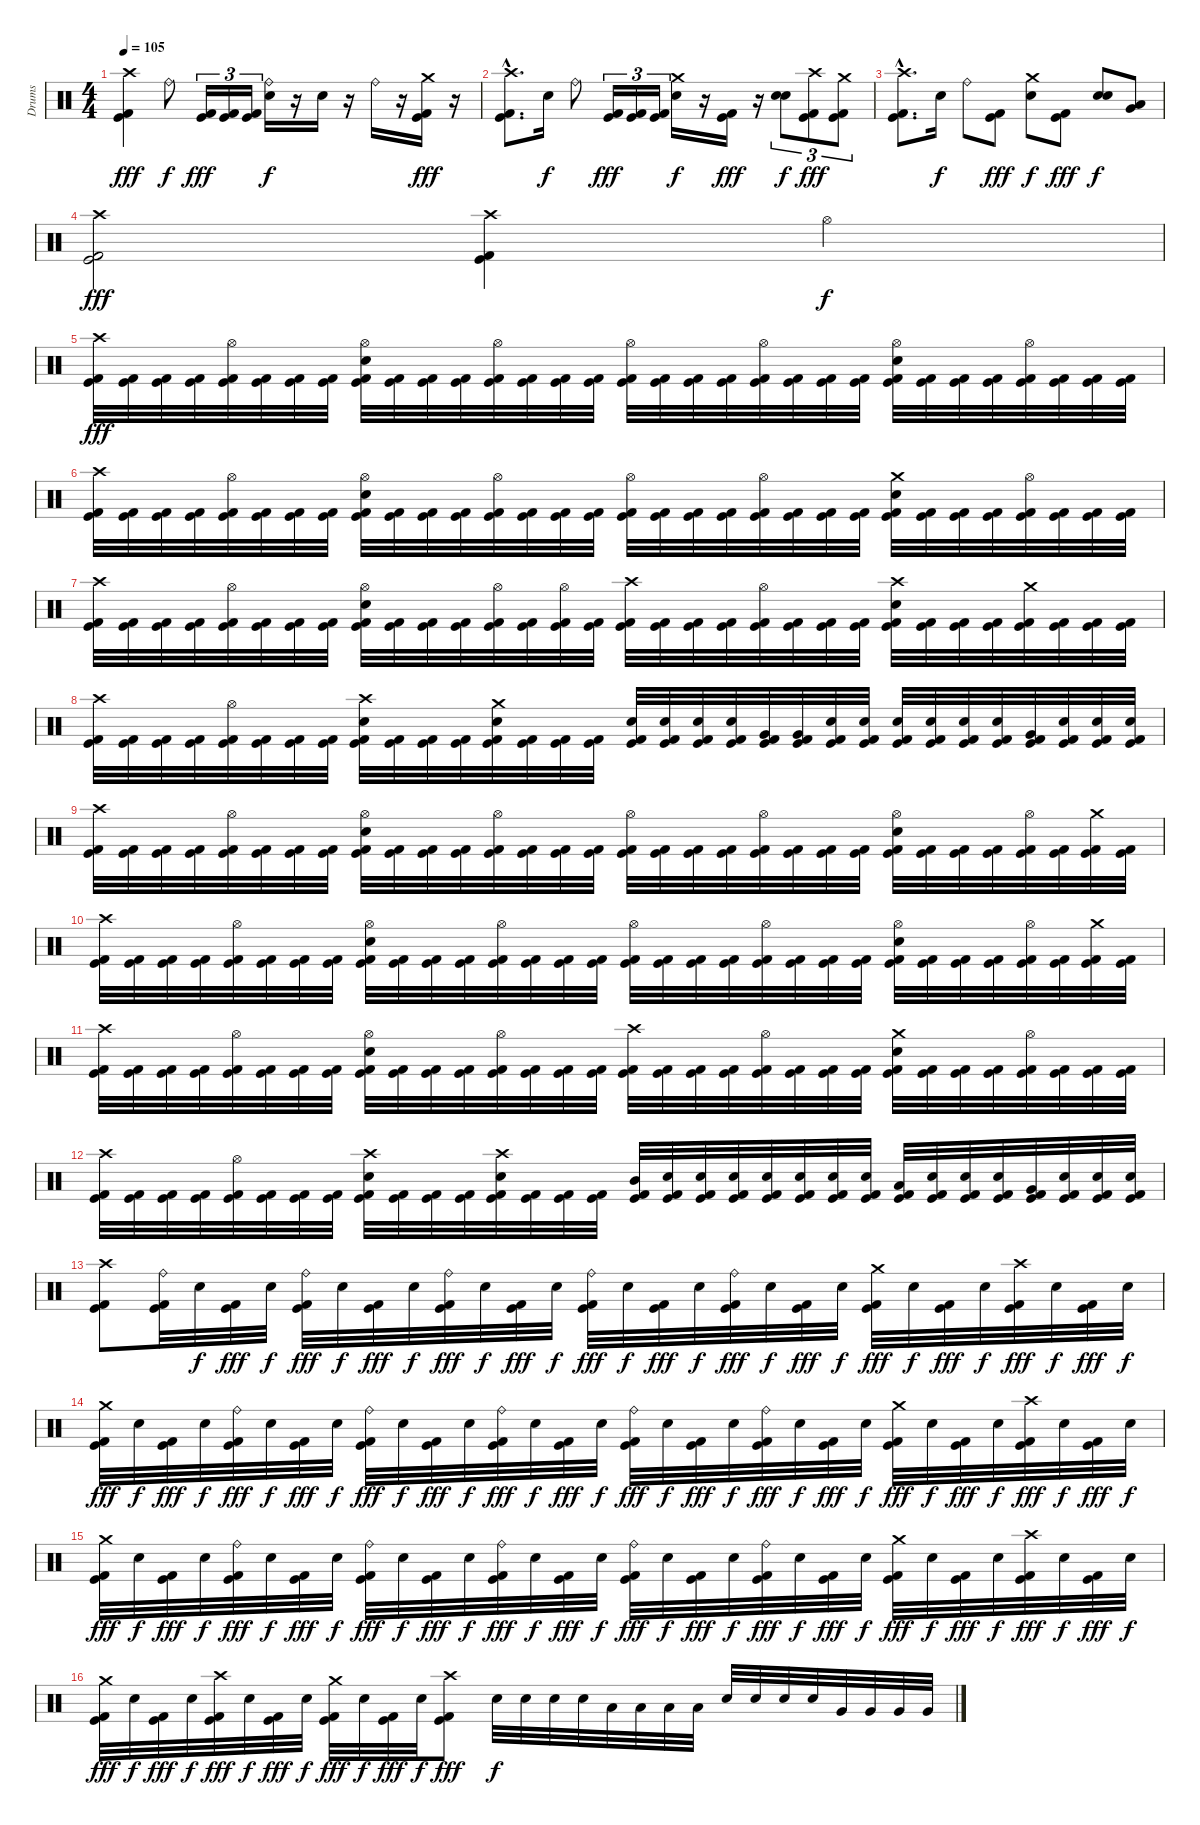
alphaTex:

\track ("Drums" "Drums") {instrument percussion}
\staff {score}
\articulation defaults
\ts (4 4)
\tempo 105
\clef neutral
\ks c
("Crash high (hit)" "Kick (hit)" "Kick (hit) 2").4{dy fff} "Ride (bell)".8{dy f} ("Kick (hit)" "Kick (hit) 2").16{tu (3 2) dy fff} ("Kick (hit)" "Kick (hit) 2").16{tu (3 2)} ("Kick (hit)" "Kick (hit) 2").16{tu (3 2)} ("Ride (bell)" "Electric Snare (hit)").16{dy f} r.16 "Electric Snare (hit)".16 r.16 "Ride (bell)".16 r.16 ("Crash medium (hit)" "Kick (hit)" "Kick (hit) 2").16{dy fff} r.16 |
("Crash high (hit)"{hac} "Kick (hit)"{hac} "Kick (hit) 2"{hac}).8{d} "Electric Snare (hit)".16{dy f} "Ride (bell)".8 ("Kick (hit)" "Kick (hit) 2").16{tu (3 2) dy fff} ("Kick (hit)" "Kick (hit) 2").16{tu (3 2)} ("Kick (hit)" "Kick (hit) 2").16{tu (3 2)} ("Crash medium (hit)" "Electric Snare (hit)").16{dy f} r.16 ("Kick (hit)" "Kick (hit) 2").16{dy fff} r.16 ("Electric Snare (hit)" "Electric Snare (hit)").8{tu (3 2) bu 120 dy f} ("Crash high (hit)" "Kick (hit)" "Kick (hit) 2").8{tu (3 2) dy fff} ("Crash medium (hit)" "Kick (hit)" "Kick (hit) 2").8{tu (3 2)} |
("Crash high (hit)"{hac} "Kick (hit)"{hac} "Kick (hit) 2"{hac}).8{d} "Electric Snare (hit)".16{dy f} "Ride (bell)".8 ("Kick (hit)" "Kick (hit) 2").8{dy fff} ("Crash medium (hit)" "Electric Snare (hit)").8{dy f} ("Kick (hit)" "Kick (hit) 2").8{dy fff} ("Electric Snare (hit)" "Electric Snare (hit)").8{bd 120 dy f} ("Very Low Tom (hit)" "Low Floor Tom (hit)").8{bd 480} |
("Crash high (hit)" "Kick (hit)" "Kick (hit) 2").2{dy fff} ("Crash high (hit)" "Kick (hit)" "Kick (hit) 2").4 "Hi-Hat (open)".4{dy f} |
("Crash high (hit)" "Kick (hit)" "Kick (hit) 2").32{dy fff} ("Kick (hit)" "Kick (hit) 2").32 ("Kick (hit)" "Kick (hit) 2").32 ("Kick (hit)" "Kick (hit) 2").32 ("Hi-Hat (open)" "Kick (hit)" "Kick (hit) 2").32 ("Kick (hit)" "Kick (hit) 2").32 ("Kick (hit)" "Kick (hit) 2").32 ("Kick (hit)" "Kick (hit) 2").32 ("Hi-Hat (open)" "Electric Snare (hit)" "Kick (hit)" "Kick (hit) 2").32 ("Kick (hit)" "Kick (hit) 2").32 ("Kick (hit)" "Kick (hit) 2").32 ("Kick (hit)" "Kick (hit) 2").32 ("Hi-Hat (open)" "Kick (hit)" "Kick (hit) 2").32 ("Kick (hit)" "Kick (hit) 2").32 ("Kick (hit)" "Kick (hit) 2").32 ("Kick (hit)" "Kick (hit) 2").32 ("Hi-Hat (open)" "Kick (hit)" "Kick (hit) 2").32 ("Kick (hit)" "Kick (hit) 2").32 ("Kick (hit)" "Kick (hit) 2").32 ("Kick (hit)" "Kick (hit) 2").32 ("Hi-Hat (open)" "Kick (hit)" "Kick (hit) 2").32 ("Kick (hit)" "Kick (hit) 2").32 ("Kick (hit)" "Kick (hit) 2").32 ("Kick (hit)" "Kick (hit) 2").32 ("Hi-Hat (open)" "Electric Snare (hit)" "Kick (hit)" "Kick (hit) 2").32 ("Kick (hit)" "Kick (hit) 2").32 ("Kick (hit)" "Kick (hit) 2").32 ("Kick (hit)" "Kick (hit) 2").32 ("Hi-Hat (open)" "Kick (hit)" "Kick (hit) 2").32 ("Kick (hit)" "Kick (hit) 2").32 ("Kick (hit)" "Kick (hit) 2").32 ("Kick (hit)" "Kick (hit) 2").32 |
("Crash high (hit)" "Kick (hit)" "Kick (hit) 2").32 ("Kick (hit)" "Kick (hit) 2").32 ("Kick (hit)" "Kick (hit) 2").32 ("Kick (hit)" "Kick (hit) 2").32 ("Hi-Hat (open)" "Kick (hit)" "Kick (hit) 2").32 ("Kick (hit)" "Kick (hit) 2").32 ("Kick (hit)" "Kick (hit) 2").32 ("Kick (hit)" "Kick (hit) 2").32 ("Hi-Hat (open)" "Electric Snare (hit)" "Kick (hit)" "Kick (hit) 2").32 ("Kick (hit)" "Kick (hit) 2").32 ("Kick (hit)" "Kick (hit) 2").32 ("Kick (hit)" "Kick (hit) 2").32 ("Hi-Hat (open)" "Kick (hit)" "Kick (hit) 2").32 ("Kick (hit)" "Kick (hit) 2").32 ("Kick (hit)" "Kick (hit) 2").32 ("Kick (hit)" "Kick (hit) 2").32 ("Hi-Hat (open)" "Kick (hit)" "Kick (hit) 2").32 ("Kick (hit)" "Kick (hit) 2").32 ("Kick (hit)" "Kick (hit) 2").32 ("Kick (hit)" "Kick (hit) 2").32 ("Hi-Hat (open)" "Kick (hit)" "Kick (hit) 2").32 ("Kick (hit)" "Kick (hit) 2").32 ("Kick (hit)" "Kick (hit) 2").32 ("Kick (hit)" "Kick (hit) 2").32 ("Crash medium (hit)" "Electric Snare (hit)" "Kick (hit)" "Kick (hit) 2").32 ("Kick (hit)" "Kick (hit) 2").32 ("Kick (hit)" "Kick (hit) 2").32 ("Kick (hit)" "Kick (hit) 2").32 ("Hi-Hat (open)" "Kick (hit)" "Kick (hit) 2").32 ("Kick (hit)" "Kick (hit) 2").32 ("Kick (hit)" "Kick (hit) 2").32 ("Kick (hit)" "Kick (hit) 2").32 |
("Crash high (hit)" "Kick (hit)" "Kick (hit) 2").32 ("Kick (hit)" "Kick (hit) 2").32 ("Kick (hit)" "Kick (hit) 2").32 ("Kick (hit)" "Kick (hit) 2").32 ("Hi-Hat (open)" "Kick (hit)" "Kick (hit) 2").32 ("Kick (hit)" "Kick (hit) 2").32 ("Kick (hit)" "Kick (hit) 2").32 ("Kick (hit)" "Kick (hit) 2").32 ("Hi-Hat (open)" "Electric Snare (hit)" "Kick (hit)" "Kick (hit) 2").32 ("Kick (hit)" "Kick (hit) 2").32 ("Kick (hit)" "Kick (hit) 2").32 ("Kick (hit)" "Kick (hit) 2").32 ("Hi-Hat (open)" "Kick (hit)" "Kick (hit) 2").32 ("Kick (hit)" "Kick (hit) 2").32 ("Hi-Hat (open)" "Kick (hit)" "Kick (hit) 2").32 ("Kick (hit)" "Kick (hit) 2").32 ("Crash high (hit)" "Kick (hit)" "Kick (hit) 2").32 ("Kick (hit)" "Kick (hit) 2").32 ("Kick (hit)" "Kick (hit) 2").32 ("Kick (hit)" "Kick (hit) 2").32 ("Hi-Hat (open)" "Kick (hit)" "Kick (hit) 2").32 ("Kick (hit)" "Kick (hit) 2").32 ("Kick (hit)" "Kick (hit) 2").32 ("Kick (hit)" "Kick (hit) 2").32 ("Crash high (hit)" "Electric Snare (hit)" "Kick (hit)" "Kick (hit) 2").32 ("Kick (hit)" "Kick (hit) 2").32 ("Kick (hit)" "Kick (hit) 2").32 ("Kick (hit)" "Kick (hit) 2").32 ("Crash medium (hit)" "Kick (hit)" "Kick (hit) 2").32 ("Kick (hit)" "Kick (hit) 2").32 ("Kick (hit)" "Kick (hit) 2").32 ("Kick (hit)" "Kick (hit) 2").32 |
("Crash high (hit)" "Kick (hit)" "Kick (hit) 2").32 ("Kick (hit)" "Kick (hit) 2").32 ("Kick (hit)" "Kick (hit) 2").32 ("Kick (hit)" "Kick (hit) 2").32 ("Hi-Hat (open)" "Kick (hit)" "Kick (hit) 2").32 ("Kick (hit)" "Kick (hit) 2").32 ("Kick (hit)" "Kick (hit) 2").32 ("Kick (hit)" "Kick (hit) 2").32 ("Crash high (hit)" "Electric Snare (hit)" "Kick (hit)" "Kick (hit) 2").32 ("Kick (hit)" "Kick (hit) 2").32 ("Kick (hit)" "Kick (hit) 2").32 ("Kick (hit)" "Kick (hit) 2").32 ("Crash medium (hit)" "Electric Snare (hit)" "Kick (hit)" "Kick (hit) 2").32 ("Kick (hit)" "Kick (hit) 2").32 ("Kick (hit)" "Kick (hit) 2").32 ("Kick (hit)" "Kick (hit) 2").32 ("Electric Snare (hit)" "Kick (hit)" "Kick (hit) 2").32 ("Electric Snare (hit)" "Kick (hit)" "Kick (hit) 2").32 ("Electric Snare (hit)" "Kick (hit)" "Kick (hit) 2").32 ("Electric Snare (hit)" "Kick (hit)" "Kick (hit) 2").32 ("Very Low Tom (hit)" "Kick (hit)" "Kick (hit) 2").32 ("Very Low Tom (hit)" "Kick (hit)" "Kick (hit) 2").32 ("Electric Snare (hit)" "Kick (hit)" "Kick (hit) 2").32 ("Electric Snare (hit)" "Kick (hit)" "Kick (hit) 2").32 ("Electric Snare (hit)" "Kick (hit)" "Kick (hit) 2").32 ("Electric Snare (hit)" "Kick (hit)" "Kick (hit) 2").32 ("Electric Snare (hit)" "Kick (hit)" "Kick (hit) 2").32 ("Electric Snare (hit)" "Kick (hit)" "Kick (hit) 2").32 ("Very Low Tom (hit)" "Kick (hit)" "Kick (hit) 2").32 ("Electric Snare (hit)" "Kick (hit)" "Kick (hit) 2").32 ("Electric Snare (hit)" "Kick (hit)" "Kick (hit) 2").32 ("Electric Snare (hit)" "Kick (hit)" "Kick (hit) 2").32 |
("Crash high (hit)" "Kick (hit)" "Kick (hit) 2").32 ("Kick (hit)" "Kick (hit) 2").32 ("Kick (hit)" "Kick (hit) 2").32 ("Kick (hit)" "Kick (hit) 2").32 ("Hi-Hat (open)" "Kick (hit)" "Kick (hit) 2").32 ("Kick (hit)" "Kick (hit) 2").32 ("Kick (hit)" "Kick (hit) 2").32 ("Kick (hit)" "Kick (hit) 2").32 ("Hi-Hat (open)" "Electric Snare (hit)" "Kick (hit)" "Kick (hit) 2").32 ("Kick (hit)" "Kick (hit) 2").32 ("Kick (hit)" "Kick (hit) 2").32 ("Kick (hit)" "Kick (hit) 2").32 ("Hi-Hat (open)" "Kick (hit)" "Kick (hit) 2").32 ("Kick (hit)" "Kick (hit) 2").32 ("Kick (hit)" "Kick (hit) 2").32 ("Kick (hit)" "Kick (hit) 2").32 ("Hi-Hat (open)" "Kick (hit)" "Kick (hit) 2").32 ("Kick (hit)" "Kick (hit) 2").32 ("Kick (hit)" "Kick (hit) 2").32 ("Kick (hit)" "Kick (hit) 2").32 ("Hi-Hat (open)" "Kick (hit)" "Kick (hit) 2").32 ("Kick (hit)" "Kick (hit) 2").32 ("Kick (hit)" "Kick (hit) 2").32 ("Kick (hit)" "Kick (hit) 2").32 ("Hi-Hat (open)" "Electric Snare (hit)" "Kick (hit)" "Kick (hit) 2").32 ("Kick (hit)" "Kick (hit) 2").32 ("Kick (hit)" "Kick (hit) 2").32 ("Kick (hit)" "Kick (hit) 2").32 ("Hi-Hat (open)" "Kick (hit)" "Kick (hit) 2").32 ("Kick (hit)" "Kick (hit) 2").32 ("Crash medium (hit)" "Kick (hit)" "Kick (hit) 2").32 ("Kick (hit)" "Kick (hit) 2").32 |
("Crash high (hit)" "Kick (hit)" "Kick (hit) 2").32 ("Kick (hit)" "Kick (hit) 2").32 ("Kick (hit)" "Kick (hit) 2").32 ("Kick (hit)" "Kick (hit) 2").32 ("Hi-Hat (open)" "Kick (hit)" "Kick (hit) 2").32 ("Kick (hit)" "Kick (hit) 2").32 ("Kick (hit)" "Kick (hit) 2").32 ("Kick (hit)" "Kick (hit) 2").32 ("Hi-Hat (open)" "Electric Snare (hit)" "Kick (hit)" "Kick (hit) 2").32 ("Kick (hit)" "Kick (hit) 2").32 ("Kick (hit)" "Kick (hit) 2").32 ("Kick (hit)" "Kick (hit) 2").32 ("Hi-Hat (open)" "Kick (hit)" "Kick (hit) 2").32 ("Kick (hit)" "Kick (hit) 2").32 ("Kick (hit)" "Kick (hit) 2").32 ("Kick (hit)" "Kick (hit) 2").32 ("Hi-Hat (open)" "Kick (hit)" "Kick (hit) 2").32 ("Kick (hit)" "Kick (hit) 2").32 ("Kick (hit)" "Kick (hit) 2").32 ("Kick (hit)" "Kick (hit) 2").32 ("Hi-Hat (open)" "Kick (hit)" "Kick (hit) 2").32 ("Kick (hit)" "Kick (hit) 2").32 ("Kick (hit)" "Kick (hit) 2").32 ("Kick (hit)" "Kick (hit) 2").32 ("Hi-Hat (open)" "Electric Snare (hit)" "Kick (hit)" "Kick (hit) 2").32 ("Kick (hit)" "Kick (hit) 2").32 ("Kick (hit)" "Kick (hit) 2").32 ("Kick (hit)" "Kick (hit) 2").32 ("Hi-Hat (open)" "Kick (hit)" "Kick (hit) 2").32 ("Kick (hit)" "Kick (hit) 2").32 ("Crash medium (hit)" "Kick (hit)" "Kick (hit) 2").32 ("Kick (hit)" "Kick (hit) 2").32 |
("Crash high (hit)" "Kick (hit)" "Kick (hit) 2").32 ("Kick (hit)" "Kick (hit) 2").32 ("Kick (hit)" "Kick (hit) 2").32 ("Kick (hit)" "Kick (hit) 2").32 ("Hi-Hat (open)" "Kick (hit)" "Kick (hit) 2").32 ("Kick (hit)" "Kick (hit) 2").32 ("Kick (hit)" "Kick (hit) 2").32 ("Kick (hit)" "Kick (hit) 2").32 ("Hi-Hat (open)" "Electric Snare (hit)" "Kick (hit)" "Kick (hit) 2").32 ("Kick (hit)" "Kick (hit) 2").32 ("Kick (hit)" "Kick (hit) 2").32 ("Kick (hit)" "Kick (hit) 2").32 ("Hi-Hat (open)" "Kick (hit)" "Kick (hit) 2").32 ("Kick (hit)" "Kick (hit) 2").32 ("Kick (hit)" "Kick (hit) 2").32 ("Kick (hit)" "Kick (hit) 2").32 ("Crash high (hit)" "Kick (hit)" "Kick (hit) 2").32 ("Kick (hit)" "Kick (hit) 2").32 ("Kick (hit)" "Kick (hit) 2").32 ("Kick (hit)" "Kick (hit) 2").32 ("Hi-Hat (open)" "Kick (hit)" "Kick (hit) 2").32 ("Kick (hit)" "Kick (hit) 2").32 ("Kick (hit)" "Kick (hit) 2").32 ("Kick (hit)" "Kick (hit) 2").32 ("Crash medium (hit)" "Electric Snare (hit)" "Kick (hit)" "Kick (hit) 2").32 ("Kick (hit)" "Kick (hit) 2").32 ("Kick (hit)" "Kick (hit) 2").32 ("Kick (hit)" "Kick (hit) 2").32 ("Hi-Hat (open)" "Kick (hit)" "Kick (hit) 2").32 ("Kick (hit)" "Kick (hit) 2").32 ("Kick (hit)" "Kick (hit) 2").32 ("Kick (hit)" "Kick (hit) 2").32 |
("Crash high (hit)" "Kick (hit)" "Kick (hit) 2").32 ("Kick (hit)" "Kick (hit) 2").32 ("Kick (hit)" "Kick (hit) 2").32 ("Kick (hit)" "Kick (hit) 2").32 ("Hi-Hat (open)" "Kick (hit)" "Kick (hit) 2").32 ("Kick (hit)" "Kick (hit) 2").32 ("Kick (hit)" "Kick (hit) 2").32 ("Kick (hit)" "Kick (hit) 2").32 ("Crash high (hit)" "Electric Snare (hit)" "Kick (hit)" "Kick (hit) 2").32 ("Kick (hit)" "Kick (hit) 2").32 ("Kick (hit)" "Kick (hit) 2").32 ("Kick (hit)" "Kick (hit) 2").32 ("Crash high (hit)" "Electric Snare (hit)" "Kick (hit)" "Kick (hit) 2").32 ("Kick (hit)" "Kick (hit) 2").32 ("Kick (hit)" "Kick (hit) 2").32 ("Kick (hit)" "Kick (hit) 2").32 ("Mid Tom (hit)" "Kick (hit)" "Kick (hit) 2").32 ("Electric Snare (hit)" "Kick (hit)" "Kick (hit) 2").32 ("Electric Snare (hit)" "Kick (hit)" "Kick (hit) 2").32 ("Electric Snare (hit)" "Kick (hit)" "Kick (hit) 2").32 ("Electric Snare (hit)" "Kick (hit)" "Kick (hit) 2").32 ("Electric Snare (hit)" "Kick (hit)" "Kick (hit) 2").32 ("Electric Snare (hit)" "Kick (hit)" "Kick (hit) 2").32 ("Electric Snare (hit)" "Kick (hit)" "Kick (hit) 2").32 ("Low Tom (hit)" "Kick (hit)" "Kick (hit) 2").32 ("Electric Snare (hit)" "Kick (hit)" "Kick (hit) 2").32 ("Electric Snare (hit)" "Kick (hit)" "Kick (hit) 2").32 ("Electric Snare (hit)" "Kick (hit)" "Kick (hit) 2").32 ("Very Low Tom (hit)" "Kick (hit)" "Kick (hit) 2").32 ("Electric Snare (hit)" "Kick (hit)" "Kick (hit) 2").32 ("Electric Snare (hit)" "Kick (hit)" "Kick (hit) 2").32 ("Electric Snare (hit)" "Kick (hit)" "Kick (hit) 2").32 |
("Crash high (hit)" "Kick (hit)" "Kick (hit) 2").8 ("Ride (bell)" "Kick (hit)" "Kick (hit) 2").32 "Electric Snare (hit)".32{dy f} ("Kick (hit)" "Kick (hit) 2").32{dy fff} "Electric Snare (hit)".32{dy f} ("Ride (bell)" "Kick (hit)" "Kick (hit) 2").32{dy fff} "Electric Snare (hit)".32{dy f} ("Kick (hit)" "Kick (hit) 2").32{dy fff} "Electric Snare (hit)".32{dy f} ("Ride (bell)" "Kick (hit)" "Kick (hit) 2").32{dy fff} "Electric Snare (hit)".32{dy f} ("Kick (hit)" "Kick (hit) 2").32{dy fff} "Electric Snare (hit)".32{dy f} ("Ride (bell)" "Kick (hit)" "Kick (hit) 2").32{dy fff} "Electric Snare (hit)".32{dy f} ("Kick (hit)" "Kick (hit) 2").32{dy fff} "Electric Snare (hit)".32{dy f} ("Ride (bell)" "Kick (hit)" "Kick (hit) 2").32{dy fff} "Electric Snare (hit)".32{dy f} ("Kick (hit)" "Kick (hit) 2").32{dy fff} "Electric Snare (hit)".32{dy f} ("Crash medium (hit)" "Kick (hit)" "Kick (hit) 2").32{dy fff} "Electric Snare (hit)".32{dy f} ("Kick (hit)" "Kick (hit) 2").32{dy fff} "Electric Snare (hit)".32{dy f} ("Crash high (hit)" "Kick (hit)" "Kick (hit) 2").32{dy fff} "Electric Snare (hit)".32{dy f} ("Kick (hit)" "Kick (hit) 2").32{dy fff} "Electric Snare (hit)".32{dy f} |
("Crash medium (hit)" "Kick (hit)" "Kick (hit) 2").32{dy fff} "Electric Snare (hit)".32{dy f} ("Kick (hit)" "Kick (hit) 2").32{dy fff} "Electric Snare (hit)".32{dy f} ("Ride (bell)" "Kick (hit)" "Kick (hit) 2").32{dy fff} "Electric Snare (hit)".32{dy f} ("Kick (hit)" "Kick (hit) 2").32{dy fff} "Electric Snare (hit)".32{dy f} ("Ride (bell)" "Kick (hit)" "Kick (hit) 2").32{dy fff} "Electric Snare (hit)".32{dy f} ("Kick (hit)" "Kick (hit) 2").32{dy fff} "Electric Snare (hit)".32{dy f} ("Ride (bell)" "Kick (hit)" "Kick (hit) 2").32{dy fff} "Electric Snare (hit)".32{dy f} ("Kick (hit)" "Kick (hit) 2").32{dy fff} "Electric Snare (hit)".32{dy f} ("Ride (bell)" "Kick (hit)" "Kick (hit) 2").32{dy fff} "Electric Snare (hit)".32{dy f} ("Kick (hit)" "Kick (hit) 2").32{dy fff} "Electric Snare (hit)".32{dy f} ("Ride (bell)" "Kick (hit)" "Kick (hit) 2").32{dy fff} "Electric Snare (hit)".32{dy f} ("Kick (hit)" "Kick (hit) 2").32{dy fff} "Electric Snare (hit)".32{dy f} ("Crash medium (hit)" "Kick (hit)" "Kick (hit) 2").32{dy fff} "Electric Snare (hit)".32{dy f} ("Kick (hit)" "Kick (hit) 2").32{dy fff} "Electric Snare (hit)".32{dy f} ("Crash high (hit)" "Kick (hit)" "Kick (hit) 2").32{dy fff} "Electric Snare (hit)".32{dy f} ("Kick (hit)" "Kick (hit) 2").32{dy fff} "Electric Snare (hit)".32{dy f} |
("Crash medium (hit)" "Kick (hit)" "Kick (hit) 2").32{dy fff} "Electric Snare (hit)".32{dy f} ("Kick (hit)" "Kick (hit) 2").32{dy fff} "Electric Snare (hit)".32{dy f} ("Ride (bell)" "Kick (hit)" "Kick (hit) 2").32{dy fff} "Electric Snare (hit)".32{dy f} ("Kick (hit)" "Kick (hit) 2").32{dy fff} "Electric Snare (hit)".32{dy f} ("Ride (bell)" "Kick (hit)" "Kick (hit) 2").32{dy fff} "Electric Snare (hit)".32{dy f} ("Kick (hit)" "Kick (hit) 2").32{dy fff} "Electric Snare (hit)".32{dy f} ("Ride (bell)" "Kick (hit)" "Kick (hit) 2").32{dy fff} "Electric Snare (hit)".32{dy f} ("Kick (hit)" "Kick (hit) 2").32{dy fff} "Electric Snare (hit)".32{dy f} ("Ride (bell)" "Kick (hit)" "Kick (hit) 2").32{dy fff} "Electric Snare (hit)".32{dy f} ("Kick (hit)" "Kick (hit) 2").32{dy fff} "Electric Snare (hit)".32{dy f} ("Ride (bell)" "Kick (hit)" "Kick (hit) 2").32{dy fff} "Electric Snare (hit)".32{dy f} ("Kick (hit)" "Kick (hit) 2").32{dy fff} "Electric Snare (hit)".32{dy f} ("Crash medium (hit)" "Kick (hit)" "Kick (hit) 2").32{dy fff} "Electric Snare (hit)".32{dy f} ("Kick (hit)" "Kick (hit) 2").32{dy fff} "Electric Snare (hit)".32{dy f} ("Crash high (hit)" "Kick (hit)" "Kick (hit) 2").32{dy fff} "Electric Snare (hit)".32{dy f} ("Kick (hit)" "Kick (hit) 2").32{dy fff} "Electric Snare (hit)".32{dy f} |
("Crash medium (hit)" "Kick (hit)" "Kick (hit) 2").32{dy fff} "Electric Snare (hit)".32{dy f} ("Kick (hit)" "Kick (hit) 2").32{dy fff} "Electric Snare (hit)".32{dy f} ("Crash high (hit)" "Kick (hit)" "Kick (hit) 2").32{dy fff} "Electric Snare (hit)".32{dy f} ("Kick (hit)" "Kick (hit) 2").32{dy fff} "Electric Snare (hit)".32{dy f} ("Crash medium (hit)" "Kick (hit)" "Kick (hit) 2").32{dy fff} "Electric Snare (hit)".32{dy f} ("Kick (hit)" "Kick (hit) 2").32{dy fff} "Electric Snare (hit)".32{dy f} ("Crash high (hit)" "Kick (hit)" "Kick (hit) 2").8{dy fff} "Electric Snare (hit)".32{dy f} "Electric Snare (hit)".32 "Electric Snare (hit)".32 "Electric Snare (hit)".32 "Low Tom (hit)".32 "Low Tom (hit)".32 "Low Tom (hit)".32 "Low Tom (hit)".32 "Electric Snare (hit)".32 "Electric Snare (hit)".32 "Electric Snare (hit)".32 "Electric Snare (hit)".32 "Very Low Tom (hit)".32 "Very Low Tom (hit)".32 "Very Low Tom (hit)".32 "Very Low Tom (hit)".32
